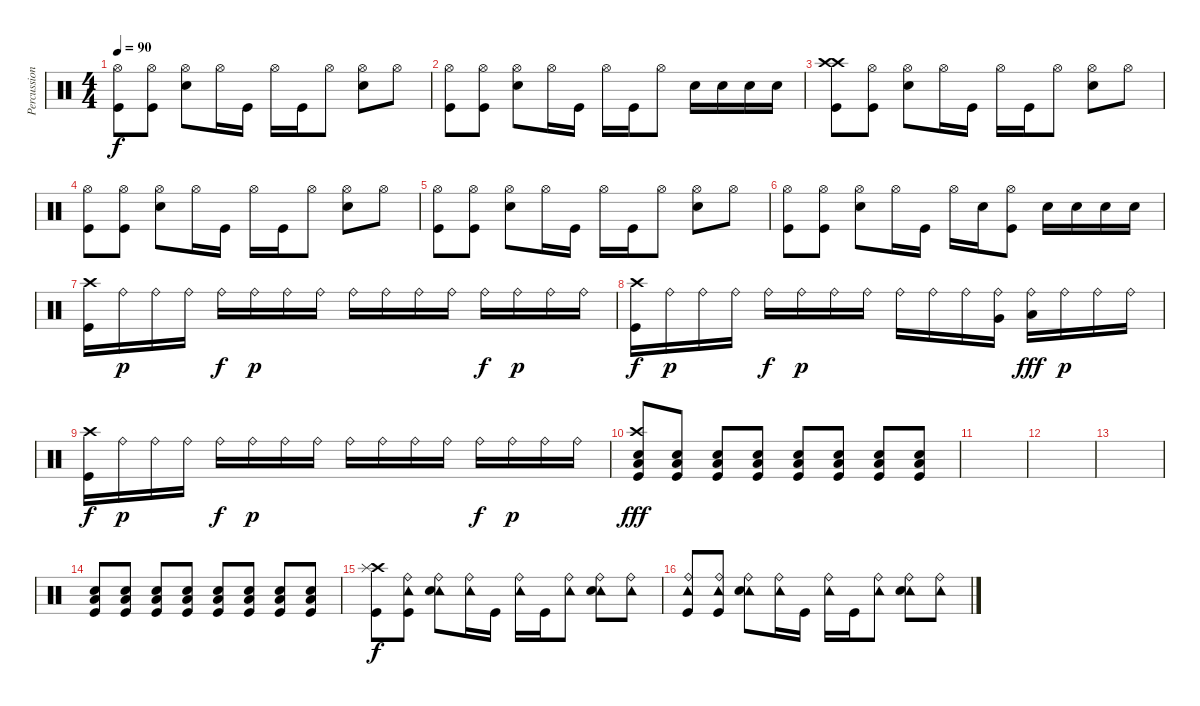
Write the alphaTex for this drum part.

\track ("Percussion" "Percussion") {instrument percussion}
\staff {score}
\articulation defaults
\ts (4 4)
\tempo 90
\clef neutral
\ks c
("Hi-Hat (open)" "Kick (hit)").8{dy f} ("Hi-Hat (open)" "Kick (hit)").8 ("Hi-Hat (open)" "Electric Snare (hit)").8 "Hi-Hat (open)".16 "Kick (hit)".16 "Hi-Hat (open)".16 "Kick (hit)".16 "Hi-Hat (open)".8 ("Hi-Hat (open)" "Electric Snare (hit)").8 "Hi-Hat (open)".8 |
("Hi-Hat (open)" "Kick (hit)").8 ("Hi-Hat (open)" "Kick (hit)").8 ("Hi-Hat (open)" "Electric Snare (hit)").8 "Hi-Hat (open)".16 "Kick (hit)".16 "Hi-Hat (open)".16 "Kick (hit)".16 "Hi-Hat (open)".8 "Electric Snare (hit)".16 "Electric Snare (hit)".16 "Electric Snare (hit)".16 "Electric Snare (hit)".16 |
("Crash high (hit)" "Crash high (hit)" "Kick (hit)").8 ("Hi-Hat (open)" "Kick (hit)").8 ("Hi-Hat (open)" "Electric Snare (hit)").8 "Hi-Hat (open)".16 "Kick (hit)".16 "Hi-Hat (open)".16 "Kick (hit)".16 "Hi-Hat (open)".8 ("Hi-Hat (open)" "Electric Snare (hit)").8 "Hi-Hat (open)".8 |
("Hi-Hat (open)" "Kick (hit)").8 ("Hi-Hat (open)" "Kick (hit)").8 ("Hi-Hat (open)" "Electric Snare (hit)").8 "Hi-Hat (open)".16 "Kick (hit)".16 "Hi-Hat (open)".16 "Kick (hit)".16 "Hi-Hat (open)".8 ("Hi-Hat (open)" "Electric Snare (hit)").8 "Hi-Hat (open)".8 |
("Hi-Hat (open)" "Kick (hit)").8 ("Hi-Hat (open)" "Kick (hit)").8 ("Hi-Hat (open)" "Electric Snare (hit)").8 "Hi-Hat (open)".16 "Kick (hit)".16 "Hi-Hat (open)".16 "Kick (hit)".16 "Hi-Hat (open)".8 ("Hi-Hat (open)" "Electric Snare (hit)").8 "Hi-Hat (open)".8 |
("Hi-Hat (open)" "Kick (hit)").8 ("Hi-Hat (open)" "Kick (hit)").8 ("Hi-Hat (open)" "Electric Snare (hit)").8 "Hi-Hat (open)".16 "Kick (hit)".16 "Hi-Hat (open)".16 "Electric Snare (hit)".16 ("Hi-Hat (open)" "Kick (hit)").8 "Electric Snare (hit)".16 "Electric Snare (hit)".16 "Electric Snare (hit)".16 "Electric Snare (hit)".16 |
("Crash high (hit)" "Kick (hit)").16 "Ride (bell)".16{dy p} "Ride (bell)".16 "Ride (bell)".16 "Ride (bell)".16{dy f} "Ride (bell)".16{dy p} "Ride (bell)".16 "Ride (bell)".16 "Ride (bell)".16 "Ride (bell)".16 "Ride (bell)".16 "Ride (bell)".16 "Ride (bell)".16{dy f} "Ride (bell)".16{dy p} "Ride (bell)".16 "Ride (bell)".16 |
("Crash high (hit)" "Kick (hit)").16{dy f} "Ride (bell)".16{dy p} "Ride (bell)".16 "Ride (bell)".16 "Ride (bell)".16{dy f} "Ride (bell)".16{dy p} "Ride (bell)".16 "Ride (bell)".16 "Ride (bell)".16 "Ride (bell)".16 "Ride (bell)".16 ("Very Low Tom (hit)" "Ride (bell)").16 ("Low Floor Tom (hit)" "Ride (bell)").16{dy fff} "Ride (bell)".16{dy p} "Ride (bell)".16 "Ride (bell)".16 |
("Crash high (hit)" "Kick (hit)").16{dy f} "Ride (bell)".16{dy p} "Ride (bell)".16 "Ride (bell)".16 "Ride (bell)".16{dy f} "Ride (bell)".16{dy p} "Ride (bell)".16 "Ride (bell)".16 "Ride (bell)".16 "Ride (bell)".16 "Ride (bell)".16 "Ride (bell)".16 "Ride (bell)".16{dy f} "Ride (bell)".16{dy p} "Ride (bell)".16 "Ride (bell)".16 |
("Crash high (hit)" "Electric Snare (hit)" "Low Floor Tom (hit)" "Kick (hit)").8{dy fff} ("Electric Snare (hit)" "Low Floor Tom (hit)" "Kick (hit)").8 ("Electric Snare (hit)" "Low Floor Tom (hit)" "Kick (hit)").8 ("Electric Snare (hit)" "Low Floor Tom (hit)" "Kick (hit)").8 ("Electric Snare (hit)" "Low Floor Tom (hit)" "Kick (hit)").8 ("Electric Snare (hit)" "Low Floor Tom (hit)" "Kick (hit)").8 ("Electric Snare (hit)" "Low Floor Tom (hit)" "Kick (hit)").8 ("Electric Snare (hit)" "Low Floor Tom (hit)" "Kick (hit)").8 |
|
|
|
("Electric Snare (hit)" "Low Floor Tom (hit)" "Kick (hit)").8 ("Electric Snare (hit)" "Low Floor Tom (hit)" "Kick (hit)").8 ("Electric Snare (hit)" "Low Floor Tom (hit)" "Kick (hit)").8 ("Electric Snare (hit)" "Low Floor Tom (hit)" "Kick (hit)").8 ("Electric Snare (hit)" "Low Floor Tom (hit)" "Kick (hit)").8 ("Electric Snare (hit)" "Low Floor Tom (hit)" "Kick (hit)").8 ("Electric Snare (hit)" "Low Floor Tom (hit)" "Kick (hit)").8 ("Electric Snare (hit)" "Low Floor Tom (hit)" "Kick (hit)").8 |
("Crash high (hit)" "Splash (hit)" "Kick (hit)").8{dy f} ("Tambourine (hit)" "Ride (bell)" "Kick (hit)").8 ("Tambourine (hit)" "Ride (bell)" "Electric Snare (hit)").8 ("Tambourine (hit)" "Ride (bell)").16 "Kick (hit)".16 ("Tambourine (hit)" "Ride (bell)").16 "Kick (hit)".16 ("Tambourine (hit)" "Ride (bell)").8 ("Tambourine (hit)" "Ride (bell)" "Electric Snare (hit)").8 ("Tambourine (hit)" "Ride (bell)").8 |
("Tambourine (hit)" "Ride (bell)" "Kick (hit)").8 ("Tambourine (hit)" "Ride (bell)" "Kick (hit)").8 ("Tambourine (hit)" "Ride (bell)" "Electric Snare (hit)").8 ("Tambourine (hit)" "Ride (bell)").16 "Kick (hit)".16 ("Tambourine (hit)" "Ride (bell)").16 "Kick (hit)".16 ("Tambourine (hit)" "Ride (bell)").8 ("Tambourine (hit)" "Ride (bell)" "Electric Snare (hit)").8 ("Tambourine (hit)" "Ride (bell)").8
